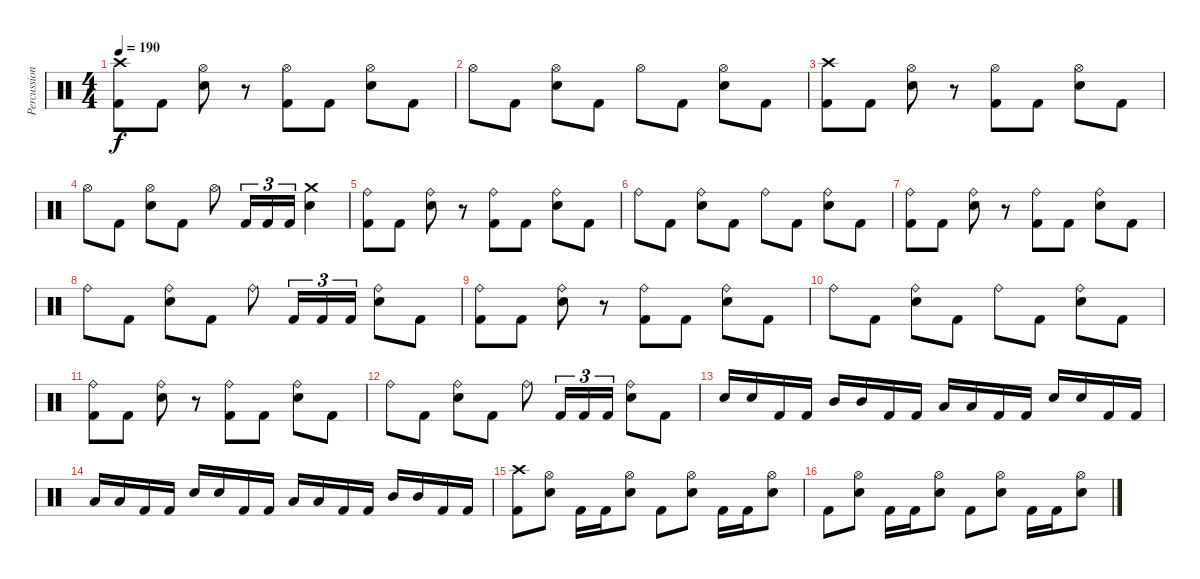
\track ("Percussion" "Percussion") {instrument percussion}
\staff {score}
\articulation defaults
\ts (4 4)
\tempo 190
\clef neutral
\ks c
("Crash high (hit)" "Kick (hit) 2").8{dy f} "Kick (hit) 2".8 ("Hi-Hat (open)" "Electric Snare (hit)").8 r.8 ("Hi-Hat (open)" "Kick (hit) 2").8 "Kick (hit) 2".8 ("Hi-Hat (open)" "Electric Snare (hit)").8 "Kick (hit) 2".8 |
"Hi-Hat (open)".8 "Kick (hit) 2".8 ("Hi-Hat (open)" "Electric Snare (hit)").8 "Kick (hit) 2".8 "Hi-Hat (open)".8 "Kick (hit) 2".8 ("Hi-Hat (open)" "Electric Snare (hit)").8 "Kick (hit) 2".8 |
("Crash high (hit)" "Kick (hit) 2").8 "Kick (hit) 2".8 ("Hi-Hat (open)" "Electric Snare (hit)").8 r.8 ("Hi-Hat (open)" "Kick (hit) 2").8 "Kick (hit) 2".8 ("Hi-Hat (open)" "Electric Snare (hit)").8 "Kick (hit) 2".8 |
"Hi-Hat (open)".8 "Kick (hit) 2".8 ("Hi-Hat (open)" "Electric Snare (hit)").8 "Kick (hit) 2".8 "Hi-Hat (open)".8 "Kick (hit) 2".16{tu (3 2)} "Kick (hit) 2".16{tu (3 2)} "Kick (hit) 2".16{tu (3 2)} ("Crash medium (hit)" "Electric Snare (hit)").4 |
("Ride (bell)" "Kick (hit) 2").8 "Kick (hit) 2".8 ("Ride (bell)" "Electric Snare (hit)").8 r.8 ("Ride (bell)" "Kick (hit) 2").8 "Kick (hit) 2".8 ("Ride (bell)" "Electric Snare (hit)").8 "Kick (hit) 2".8 |
"Ride (bell)".8 "Kick (hit) 2".8 ("Ride (bell)" "Electric Snare (hit)").8 "Kick (hit) 2".8 "Ride (bell)".8 "Kick (hit) 2".8 ("Ride (bell)" "Electric Snare (hit)").8 "Kick (hit) 2".8 |
("Ride (bell)" "Kick (hit) 2").8 "Kick (hit) 2".8 ("Ride (bell)" "Electric Snare (hit)").8 r.8 ("Ride (bell)" "Kick (hit) 2").8 "Kick (hit) 2".8 ("Ride (bell)" "Electric Snare (hit)").8 "Kick (hit) 2".8 |
"Ride (bell)".8 "Kick (hit) 2".8 ("Ride (bell)" "Electric Snare (hit)").8 "Kick (hit) 2".8 "Ride (bell)".8 "Kick (hit) 2".16{tu (3 2)} "Kick (hit) 2".16{tu (3 2)} "Kick (hit) 2".16{tu (3 2)} ("Ride (bell)" "Electric Snare (hit)").8 "Kick (hit) 2".8 |
("Ride (bell)" "Kick (hit) 2").8 "Kick (hit) 2".8 ("Ride (bell)" "Electric Snare (hit)").8 r.8 ("Ride (bell)" "Kick (hit) 2").8 "Kick (hit) 2".8 ("Ride (bell)" "Electric Snare (hit)").8 "Kick (hit) 2".8 |
"Ride (bell)".8 "Kick (hit) 2".8 ("Ride (bell)" "Electric Snare (hit)").8 "Kick (hit) 2".8 "Ride (bell)".8 "Kick (hit) 2".8 ("Ride (bell)" "Electric Snare (hit)").8 "Kick (hit) 2".8 |
("Ride (bell)" "Kick (hit) 2").8 "Kick (hit) 2".8 ("Ride (bell)" "Electric Snare (hit)").8 r.8 ("Ride (bell)" "Kick (hit) 2").8 "Kick (hit) 2".8 ("Ride (bell)" "Electric Snare (hit)").8 "Kick (hit) 2".8 |
"Ride (bell)".8 "Kick (hit) 2".8 ("Ride (bell)" "Electric Snare (hit)").8 "Kick (hit) 2".8 "Ride (bell)".8 "Kick (hit) 2".16{tu (3 2)} "Kick (hit) 2".16{tu (3 2)} "Kick (hit) 2".16{tu (3 2)} ("Ride (bell)" "Electric Snare (hit)").8 "Kick (hit) 2".8 |
"Electric Snare (hit)".16 "Electric Snare (hit)".16 "Kick (hit) 2".16 "Kick (hit) 2".16 "Mid Tom (hit)".16 "Mid Tom (hit)".16 "Kick (hit) 2".16 "Kick (hit) 2".16 "Low Tom (hit)".16 "Low Tom (hit)".16 "Kick (hit) 2".16 "Kick (hit) 2".16 "Electric Snare (hit)".16 "Electric Snare (hit)".16 "Kick (hit) 2".16 "Kick (hit) 2".16 |
"Low Tom (hit)".16 "Low Tom (hit)".16 "Kick (hit) 2".16 "Kick (hit) 2".16 "Electric Snare (hit)".16 "Electric Snare (hit)".16 "Kick (hit) 2".16 "Kick (hit) 2".16 "Low Tom (hit)".16 "Low Tom (hit)".16 "Kick (hit) 2".16 "Kick (hit) 2".16 "Mid Tom (hit)".16 "Mid Tom (hit)".16 "Kick (hit) 2".16 "Kick (hit) 2".16 |
("Crash high (hit)" "Kick (hit) 2").8 ("Hi-Hat (open)" "Electric Snare (hit)").8 "Kick (hit) 2".16 "Kick (hit) 2".16 ("Hi-Hat (open)" "Electric Snare (hit)").8 "Kick (hit) 2".8 ("Hi-Hat (open)" "Electric Snare (hit)").8 "Kick (hit) 2".16 "Kick (hit) 2".16 ("Hi-Hat (open)" "Electric Snare (hit)").8 |
"Kick (hit) 2".8 ("Hi-Hat (open)" "Electric Snare (hit)").8 "Kick (hit) 2".16 "Kick (hit) 2".16 ("Hi-Hat (open)" "Electric Snare (hit)").8 "Kick (hit) 2".8 ("Hi-Hat (open)" "Electric Snare (hit)").8 "Kick (hit) 2".16 "Kick (hit) 2".16 ("Hi-Hat (open)" "Electric Snare (hit)").8
